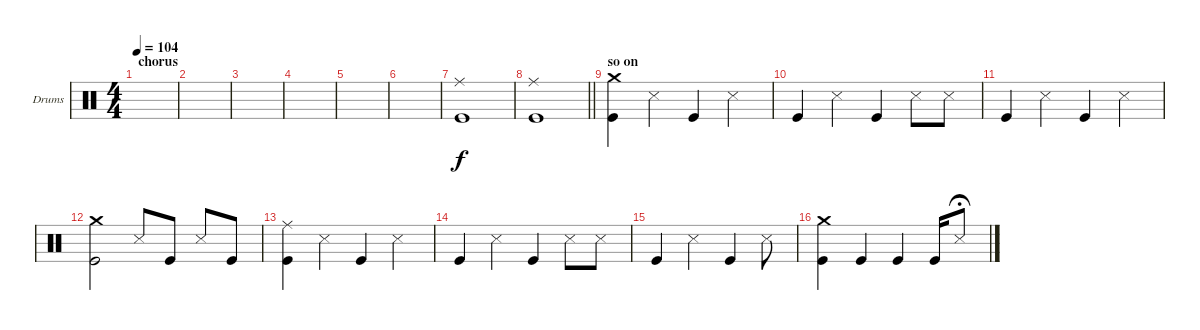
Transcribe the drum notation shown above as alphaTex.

\bracketExtendMode groupsimilarinstruments
\firstSystemTrackNameOrientation horizontal
\otherSystemsTrackNameOrientation horizontal
\track ("Drumkit" "Drums") {instrument percussion}
\staff {score}
\articulation defaults
\ts (4 4)
\section ("" "chorus")
\tempo 104
\clef neutral
\scale
0.333333
\ks c
|
\scale
0.333333 |
\scale
0.333333 |
\scale
0.333333 |
\scale
0.333333 |
\scale
0.333333 |
\scale
0.333333 ("Ride (middle)" "Kick (hit)").1 |
\scale
0.333333
\barLineRight lightlight
("Kick (hit)" "Ride (middle)").1 |
\section ("" "so on")
\scale
0.333333 ("Crash medium (hit)" "Kick (hit)").4 "Snare (side stick) 3".4 "Kick (hit)".4 "Snare (side stick) 3".4 |
\scale
0.333333 "Kick (hit)".4 "Snare (side stick) 3".4 "Kick (hit)".4 "Snare (side stick) 3".8 "Snare (side stick) 3".8 |
\scale
0.333333 "Kick (hit)".4 "Snare (side stick) 3".4 "Kick (hit)".4 "Snare (side stick) 3".4 |
\scale
0.333333 ("Kick (hit)" "Crash medium (hit)").2 "Snare (side stick) 3".8 "Kick (hit)".8 "Snare (side stick) 3".8 "Kick (hit)".8 |
\scale
0.333333 ("Kick (hit)" "Ride (middle)").4 "Snare (side stick) 3".4 "Kick (hit)".4 "Snare (side stick) 3".4 |
\scale
0.333333 "Kick (hit)".4 "Snare (side stick) 3".4 "Kick (hit)".4 "Snare (side stick) 3".8 "Snare (side stick) 3".8 |
\scale
0.333333 "Kick (hit)".4 "Snare (side stick) 3".4 "Kick (hit)".4 "Snare (side stick) 3".8 |
\scale
0.333333 ("Kick (hit)" "Crash medium (hit)").4 "Kick (hit)".4 "Kick (hit)".4 "Kick (hit)".16 "Snare (side stick) 3".8{fermata (medium 0)}
